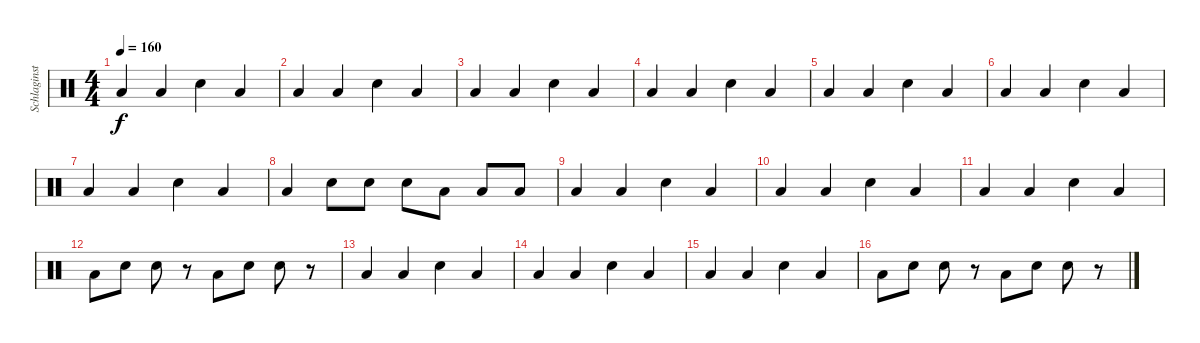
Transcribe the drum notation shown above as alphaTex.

\track ("Schlaginstrumente - Auswahl" "Schlaginst") {instrument percussion}
\staff {score}
\articulation defaults
\ts (4 4)
\tempo 160
\clef neutral
\ks c "Low Floor Tom (hit)".4{dy f} "Low Floor Tom (hit)".4 "Snare (hit) 2".4 "Low Floor Tom (hit)".4
|
"Low Floor Tom (hit)".4 "Low Floor Tom (hit)".4 "Snare (hit) 2".4 "Low Floor Tom (hit)".4 |
"Low Floor Tom (hit)".4 "Low Floor Tom (hit)".4 "Snare (hit) 2".4 "Low Floor Tom (hit)".4 |
"Low Floor Tom (hit)".4 "Low Floor Tom (hit)".4 "Snare (hit) 2".4 "Low Floor Tom (hit)".4 |
"Low Floor Tom (hit)".4 "Low Floor Tom (hit)".4 "Snare (hit) 2".4 "Low Floor Tom (hit)".4 |
"Low Floor Tom (hit)".4 "Low Floor Tom (hit)".4 "Snare (hit) 2".4 "Low Floor Tom (hit)".4 |
"Low Floor Tom (hit)".4 "Low Floor Tom (hit)".4 "Snare (hit) 2".4 "Low Floor Tom (hit)".4 |
"Low Floor Tom (hit)".4 "Snare (hit) 2".8 "Snare (hit) 2".8 "Snare (hit) 2".8 "Low Floor Tom (hit)".8 "Low Floor Tom (hit)".8 "Low Floor Tom (hit)".8 |
"Low Floor Tom (hit)".4 "Low Floor Tom (hit)".4 "Snare (hit) 2".4 "Low Floor Tom (hit)".4 |
"Low Floor Tom (hit)".4 "Low Floor Tom (hit)".4 "Snare (hit) 2".4 "Low Floor Tom (hit)".4 |
"Low Floor Tom (hit)".4 "Low Floor Tom (hit)".4 "Snare (hit) 2".4 "Low Floor Tom (hit)".4 |
"Low Floor Tom (hit)".8 "Snare (hit) 2".8 "Snare (hit) 2".8 r.8 "Low Floor Tom (hit)".8 "Snare (hit) 2".8 "Snare (hit) 2".8 r.8 |
"Low Floor Tom (hit)".4 "Low Floor Tom (hit)".4 "Snare (hit) 2".4 "Low Floor Tom (hit)".4 |
"Low Floor Tom (hit)".4 "Low Floor Tom (hit)".4 "Snare (hit) 2".4 "Low Floor Tom (hit)".4 |
"Low Floor Tom (hit)".4 "Low Floor Tom (hit)".4 "Snare (hit) 2".4 "Low Floor Tom (hit)".4 |
"Low Floor Tom (hit)".8 "Snare (hit) 2".8 "Snare (hit) 2".8 r.8 "Low Floor Tom (hit)".8 "Snare (hit) 2".8 "Snare (hit) 2".8 r.8
